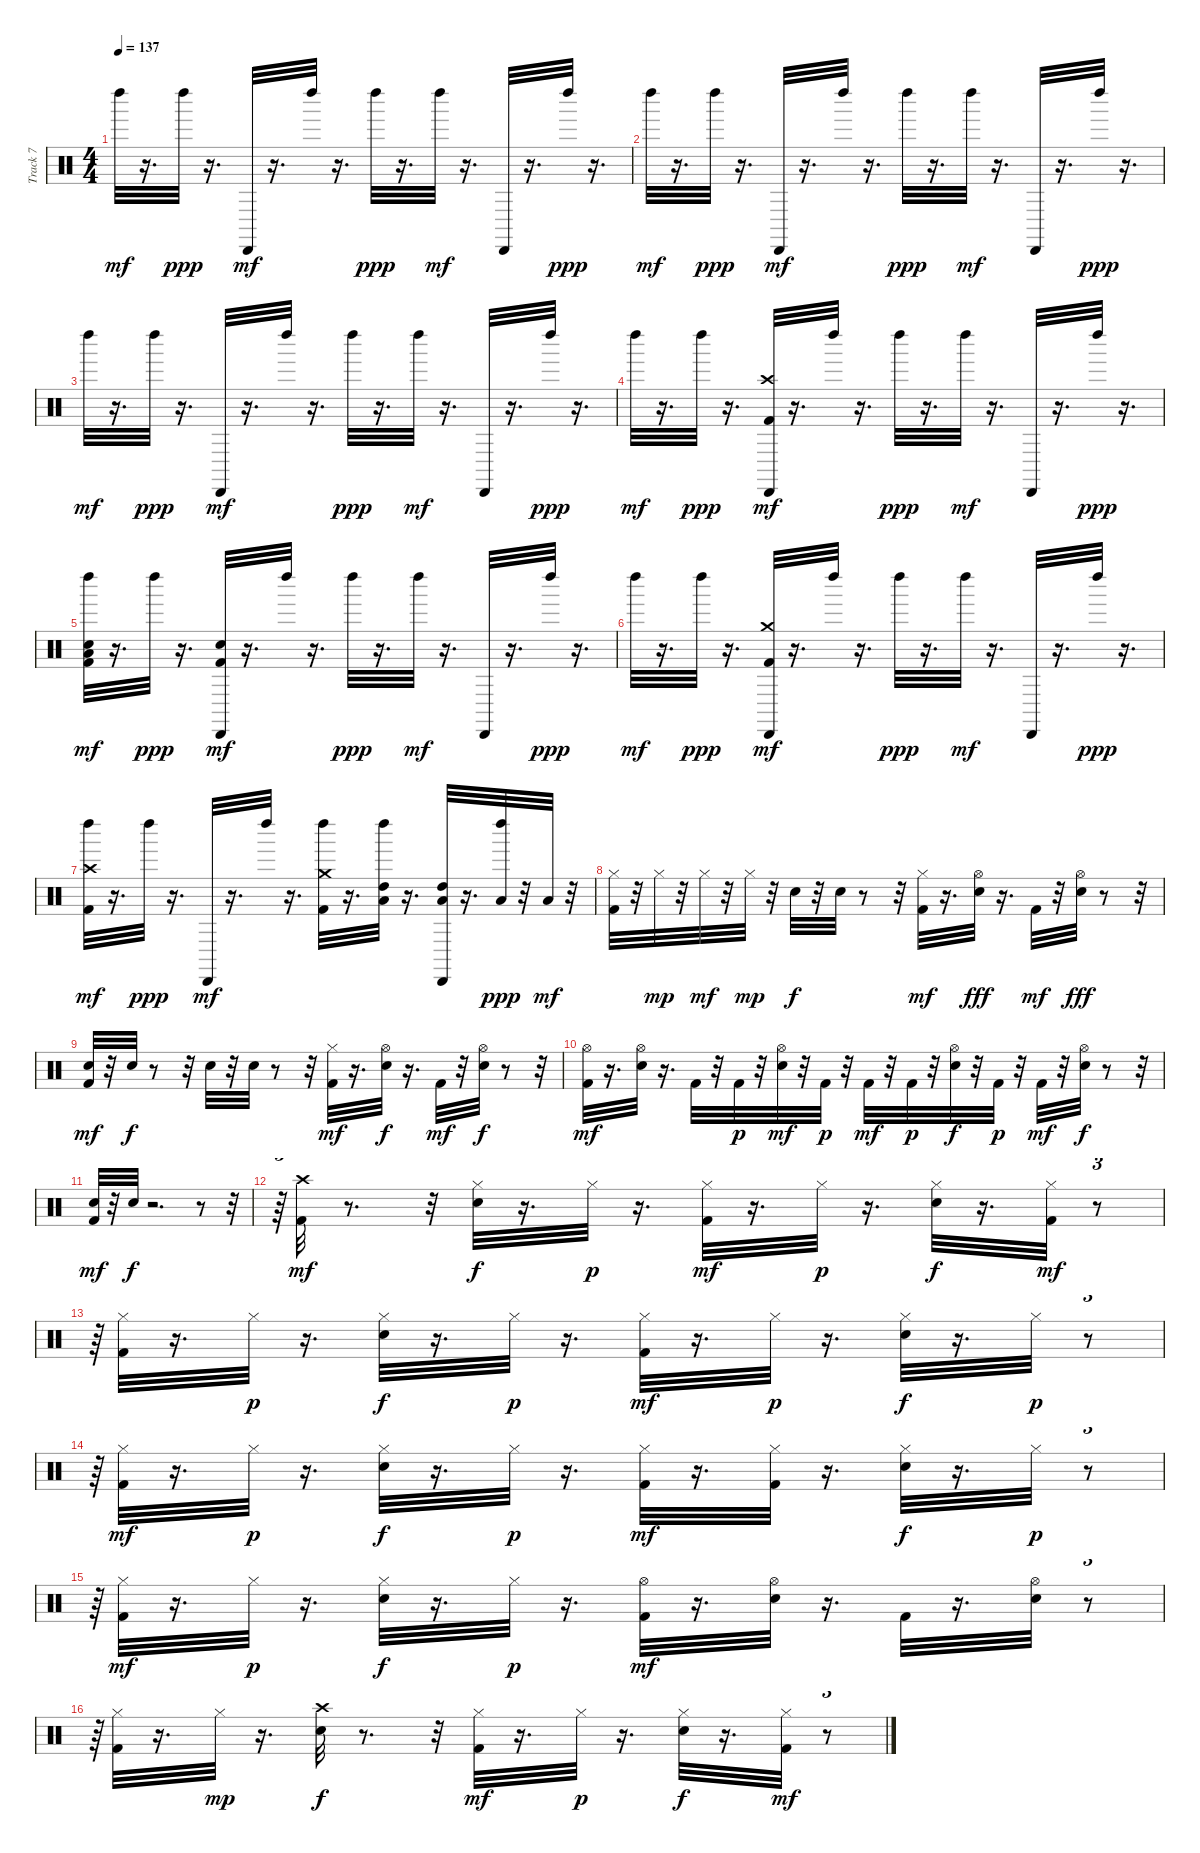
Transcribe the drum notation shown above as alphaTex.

\track ("Track 7" "Track 7") {instrument percussion}
\staff {score}
\articulation defaults
\ts (4 4)
\tempo 137
\clef neutral
\ks c "Left Maraca (hit)".32{dy mf}
r.16{d} "Left Maraca (hit)".32{dy ppp} r.16{d} "Cabasa (hit)".32{dy mf} r.16{d} "Left Maraca (hit)".32 r.16{d} "Left Maraca (hit)".32{dy ppp} r.16{d} "Left Maraca (hit)".32{dy mf} r.16{d} "Cabasa (hit)".32 r.16{d} "Left Maraca (hit)".32{dy ppp} r.16{d} |
"Left Maraca (hit)".32{dy mf} r.16{d} "Left Maraca (hit)".32{dy ppp} r.16{d} "Cabasa (hit)".32{dy mf} r.16{d} "Left Maraca (hit)".32 r.16{d} "Left Maraca (hit)".32{dy ppp} r.16{d} "Left Maraca (hit)".32{dy mf} r.16{d} "Cabasa (hit)".32 r.16{d} "Left Maraca (hit)".32{dy ppp} r.16{d} |
"Left Maraca (hit)".32{dy mf} r.16{d} "Left Maraca (hit)".32{dy ppp} r.16{d} "Cabasa (hit)".32{dy mf} r.16{d} "Left Maraca (hit)".32 r.16{d} "Left Maraca (hit)".32{dy ppp} r.16{d} "Left Maraca (hit)".32{dy mf} r.16{d} "Cabasa (hit)".32 r.16{d} "Left Maraca (hit)".32{dy ppp} r.16{d} |
"Left Maraca (hit)".32{dy mf} r.16{d} "Left Maraca (hit)".32{dy ppp} r.16{d} ("Crash high (hit)" "Cabasa (hit)" "Kick (hit) 2").32{dy mf} r.16{d} "Left Maraca (hit)".32 r.16{d} "Left Maraca (hit)".32{dy ppp} r.16{d} "Left Maraca (hit)".32{dy mf} r.16{d} "Cabasa (hit)".32 r.16{d} "Left Maraca (hit)".32{dy ppp} r.16{d} |
("Snare (hit) 2" "Low Tom (hit)" "Left Maraca (hit)" "Kick (hit) 2").32{dy mf} r.16{d} "Left Maraca (hit)".32{dy ppp} r.16{d} ("Snare (hit) 2" "Cabasa (hit)" "Kick (hit) 2").32{dy mf} r.16{d} "Left Maraca (hit)".32 r.16{d} "Left Maraca (hit)".32{dy ppp} r.16{d} "Left Maraca (hit)".32{dy mf} r.16{d} "Cabasa (hit)".32 r.16{d} "Left Maraca (hit)".32{dy ppp} r.16{d} |
"Left Maraca (hit)".32{dy mf} r.16{d} "Left Maraca (hit)".32{dy ppp} r.16{d} ("Crash medium (hit)" "Cabasa (hit)" "Kick (hit) 2").32{dy mf} r.16{d} "Left Maraca (hit)".32 r.16{d} "Left Maraca (hit)".32{dy ppp} r.16{d} "Left Maraca (hit)".32{dy mf} r.16{d} "Cabasa (hit)".32 r.16{d} "Left Maraca (hit)".32{dy ppp} r.16{d} |
("Crash high (hit)" "Left Maraca (hit)" "Kick (hit) 2").32{dy mf} r.16{d} "Left Maraca (hit)".32{dy ppp} r.16{d} "Cabasa (hit)".32{dy mf} r.16{d} "Left Maraca (hit)".32 r.16{d} ("Crash medium (hit)" "Left Maraca (hit)" "Kick (hit) 2").32 r.16{d} ("Low Tom (hit)" "Left Maraca (hit)" "High Tom (hit)").32 r.16{d} ("Low Tom (hit)" "Cabasa (hit)" "High Tom (hit)").32 r.16{d} ("Low Tom (hit)" "Left Maraca (hit)").32{dy ppp} r.32 "Low Floor Tom (hit)".32{dy mf} r.32 |
("Hi-Hat (closed)" "Kick (hit) 2").32 r.32 "Hi-Hat (closed)".32{dy mp} r.32 "Hi-Hat (closed)".32{dy mf} r.32 "Hi-Hat (closed)".32{dy mp} r.32 "Snare (hit) 2".32{dy f} r.32 "Snare (hit) 2".32 r.8 r.32 ("Hi-Hat (closed)" "Kick (hit) 2").32{dy mf} r.16{d} ("Hi-Hat (open)" "Snare (hit) 2").32{dy fff} r.16{d} "Kick (hit) 2".32{dy mf} r.32 ("Hi-Hat (open)" "Snare (hit) 2").32{dy fff} r.8 r.32 |
("Kick (hit) 2" "Snare (hit) 2").32{dy mf} r.32 "Snare (hit) 2".32{dy f} r.8 r.32 "Snare (hit) 2".32 r.32 "Snare (hit) 2".32 r.8 r.32 ("Hi-Hat (closed)" "Kick (hit) 2").32{dy mf} r.16{d} ("Hi-Hat (open)" "Snare (hit) 2").32{dy f} r.16{d} "Kick (hit) 2".32{dy mf} r.32 ("Hi-Hat (open)" "Snare (hit) 2").32{dy f} r.8 r.32 |
("Hi-Hat (open)" "Kick (hit) 2").32{dy mf} r.16{d} ("Hi-Hat (open)" "Snare (hit) 2").32 r.16{d} "Kick (hit) 2".32 r.32 "Kick (hit) 2".32{dy p} r.32 ("Hi-Hat (open)" "Snare (hit) 2").32{dy mf} r.32 "Kick (hit) 2".32{dy p} r.32 "Kick (hit) 2".32{dy mf} r.32 "Kick (hit) 2".32{dy p} r.32 ("Hi-Hat (open)" "Snare (hit) 2").32{dy f} r.32 "Kick (hit) 2".32{dy p} r.32 "Kick (hit) 2".32{dy mf} r.32 ("Hi-Hat (open)" "Snare (hit) 2").32{dy f} r.8 r.32 |
("Snare (hit) 2" "Kick (hit) 2").32{dy mf} r.32 "Snare (hit) 2".32{dy f} r.2{d} r.8 r.32 |
r.64{tu (3 2)} ("Kick (hit) 2" "Crash high (hit)").32{dy mf} r.8{d} r.32 ("Hi-Hat (closed)" "Snare (hit) 2").32{dy f} r.16{d} "Hi-Hat (closed)".32{dy p} r.16{d} ("Hi-Hat (closed)" "Kick (hit) 2").32{dy mf} r.16{d} "Hi-Hat (closed)".32{dy p} r.16{d} ("Hi-Hat (closed)" "Snare (hit) 2").32{dy f} r.16{d} ("Hi-Hat (closed)" "Kick (hit) 2").32{dy mf} r.8{tu (3 2)} |
r.64{tu (3 2)} ("Hi-Hat (closed)" "Kick (hit) 2").32 r.16{d} "Hi-Hat (closed)".32{dy p} r.16{d} ("Hi-Hat (closed)" "Snare (hit) 2").32{dy f} r.16{d} "Hi-Hat (closed)".32{dy p} r.16{d} ("Hi-Hat (closed)" "Kick (hit) 2").32{dy mf} r.16{d} "Hi-Hat (closed)".32{dy p} r.16{d} ("Hi-Hat (closed)" "Snare (hit) 2").32{dy f} r.16{d} "Hi-Hat (closed)".32{dy p} r.8{tu (3 2)} |
r.64{tu (3 2)} ("Hi-Hat (closed)" "Kick (hit) 2").32{dy mf} r.16{d} "Hi-Hat (closed)".32{dy p} r.16{d} ("Hi-Hat (closed)" "Snare (hit) 2").32{dy f} r.16{d} "Hi-Hat (closed)".32{dy p} r.16{d} ("Hi-Hat (closed)" "Kick (hit) 2").32{dy mf} r.16{d} ("Hi-Hat (closed)" "Kick (hit) 2").32 r.16{d} ("Hi-Hat (closed)" "Snare (hit) 2").32{dy f} r.16{d} "Hi-Hat (closed)".32{dy p} r.8{tu (3 2)} |
r.64{tu (3 2)} ("Hi-Hat (closed)" "Kick (hit) 2").32{dy mf} r.16{d} "Hi-Hat (closed)".32{dy p} r.16{d} ("Hi-Hat (closed)" "Snare (hit) 2").32{dy f} r.16{d} "Hi-Hat (closed)".32{dy p} r.16{d} ("Hi-Hat (open)" "Kick (hit) 2").32{dy mf} r.16{d} ("Hi-Hat (open)" "Snare (hit) 2").32 r.16{d} "Kick (hit) 2".32 r.16{d} ("Hi-Hat (open)" "Snare (hit) 2").32 r.8{tu (3 2)} |
r.64{tu (3 2)} ("Hi-Hat (closed)" "Kick (hit) 2").32 r.16{d} "Hi-Hat (closed)".32{dy mp} r.16{d} ("Crash high (hit)" "Snare (hit) 2").32{dy f} r.8{d} r.32 ("Hi-Hat (closed)" "Kick (hit) 2").32{dy mf} r.16{d} "Hi-Hat (closed)".32{dy p} r.16{d} ("Hi-Hat (closed)" "Snare (hit) 2").32{dy f} r.16{d} ("Hi-Hat (closed)" "Kick (hit) 2").32{dy mf} r.8{tu (3 2)}
